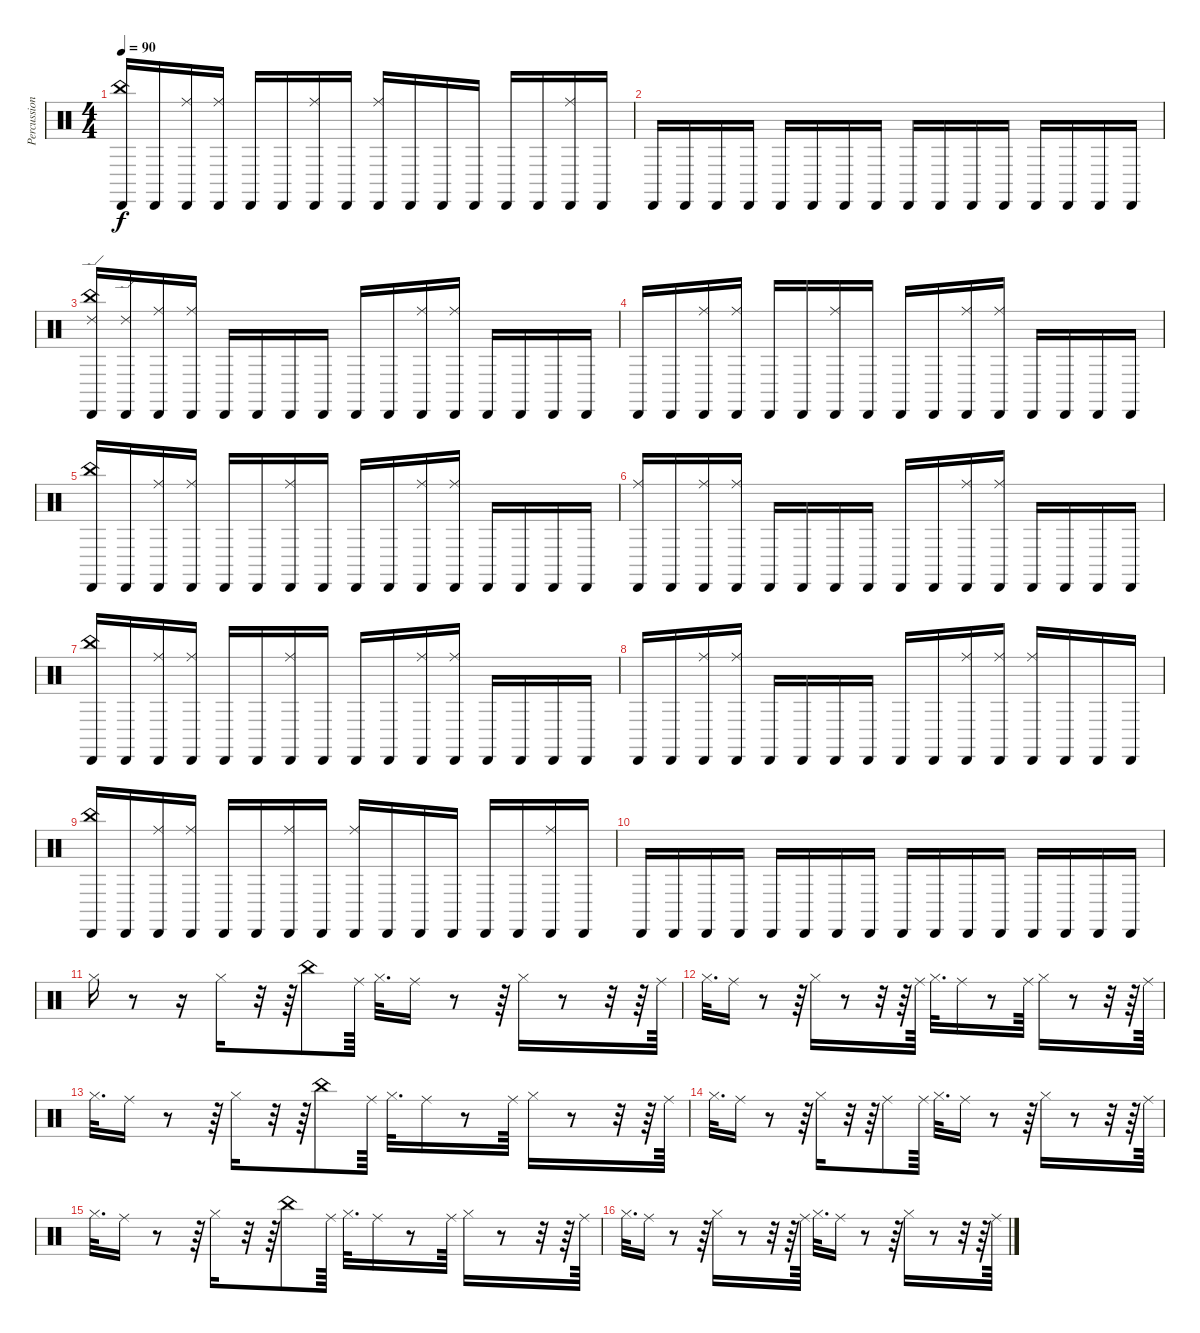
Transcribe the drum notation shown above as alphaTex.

\track ("Percussions by Marc Lavoo" "Percussion") {instrument percussion}
\staff {score}
\articulation defaults
\ts (4 4)
\tempo 90
\clef neutral
\ks c
("Cabasa (hit)" "China (hit)").16{dy f} "Cabasa (hit)".16 ("Cabasa (hit)" "Ride (middle)").16 ("Cabasa (hit)" "Ride (middle)").16 "Cabasa (hit)".16 "Cabasa (hit)".16 ("Cabasa (hit)" "Ride (middle)").16 "Cabasa (hit)".16 ("Cabasa (hit)" "Ride (middle)").16 "Cabasa (hit)".16 "Cabasa (hit)".16 "Cabasa (hit)".16 "Cabasa (hit)".16 "Cabasa (hit)".16 ("Cabasa (hit)" "Ride (middle)").16 "Cabasa (hit)".16 |
"Cabasa (hit)".16 "Cabasa (hit)".16 "Cabasa (hit)".16 "Cabasa (hit)".16 "Cabasa (hit)".16 "Cabasa (hit)".16 "Cabasa (hit)".16 "Cabasa (hit)".16 "Cabasa (hit)".16 "Cabasa (hit)".16 "Cabasa (hit)".16 "Cabasa (hit)".16 "Cabasa (hit)".16 "Cabasa (hit)".16 "Cabasa (hit)".16 "Cabasa (hit)".16 |
("Cabasa (hit)" "China (hit)" "Ride (edge) 2").16 ("Cabasa (hit)" "Ride (edge) 2").16 ("Cabasa (hit)" "Ride (middle)").16 ("Cabasa (hit)" "Ride (middle)").16 "Cabasa (hit)".16 "Cabasa (hit)".16 "Cabasa (hit)".16 "Cabasa (hit)".16 "Cabasa (hit)".16 "Cabasa (hit)".16 ("Cabasa (hit)" "Ride (middle)").16 ("Cabasa (hit)" "Ride (middle)").16 "Cabasa (hit)".16 "Cabasa (hit)".16 "Cabasa (hit)".16 "Cabasa (hit)".16 |
"Cabasa (hit)".16 "Cabasa (hit)".16 ("Cabasa (hit)" "Ride (middle)").16 ("Cabasa (hit)" "Ride (middle)").16 "Cabasa (hit)".16 "Cabasa (hit)".16 ("Cabasa (hit)" "Ride (middle)").16 "Cabasa (hit)".16 "Cabasa (hit)".16 "Cabasa (hit)".16 ("Cabasa (hit)" "Ride (middle)").16 ("Cabasa (hit)" "Ride (middle)").16 "Cabasa (hit)".16 "Cabasa (hit)".16 "Cabasa (hit)".16 "Cabasa (hit)".16 |
("Cabasa (hit)" "China (hit)").16 "Cabasa (hit)".16 ("Cabasa (hit)" "Ride (middle)").16 ("Cabasa (hit)" "Ride (middle)").16 "Cabasa (hit)".16 "Cabasa (hit)".16 ("Cabasa (hit)" "Ride (middle)").16 "Cabasa (hit)".16 "Cabasa (hit)".16 "Cabasa (hit)".16 ("Cabasa (hit)" "Ride (middle)").16 ("Cabasa (hit)" "Ride (middle)").16 "Cabasa (hit)".16 "Cabasa (hit)".16 "Cabasa (hit)".16 "Cabasa (hit)".16 |
("Cabasa (hit)" "Ride (middle)").16 "Cabasa (hit)".16 ("Cabasa (hit)" "Ride (middle)").16 ("Cabasa (hit)" "Ride (middle)").16 "Cabasa (hit)".16 "Cabasa (hit)".16 "Cabasa (hit)".16 "Cabasa (hit)".16 "Cabasa (hit)".16 "Cabasa (hit)".16 ("Cabasa (hit)" "Ride (middle)").16 ("Cabasa (hit)" "Ride (middle)").16 "Cabasa (hit)".16 "Cabasa (hit)".16 "Cabasa (hit)".16 "Cabasa (hit)".16 |
("Cabasa (hit)" "China (hit)").16 "Cabasa (hit)".16 ("Cabasa (hit)" "Ride (middle)").16 ("Cabasa (hit)" "Ride (middle)").16 "Cabasa (hit)".16 "Cabasa (hit)".16 ("Cabasa (hit)" "Ride (middle)").16 "Cabasa (hit)".16 "Cabasa (hit)".16 "Cabasa (hit)".16 ("Cabasa (hit)" "Ride (middle)").16 ("Cabasa (hit)" "Ride (middle)").16 "Cabasa (hit)".16 "Cabasa (hit)".16 "Cabasa (hit)".16 "Cabasa (hit)".16 |
"Cabasa (hit)".16 "Cabasa (hit)".16 ("Cabasa (hit)" "Ride (middle)").16 ("Cabasa (hit)" "Ride (middle)").16 "Cabasa (hit)".16 "Cabasa (hit)".16 "Cabasa (hit)".16 "Cabasa (hit)".16 "Cabasa (hit)".16 "Cabasa (hit)".16 ("Cabasa (hit)" "Ride (middle)").16 ("Cabasa (hit)" "Ride (middle)").16 ("Cabasa (hit)" "Ride (middle)").16 "Cabasa (hit)".16 "Cabasa (hit)".16 "Cabasa (hit)".16 |
("Cabasa (hit)" "China (hit)").16 "Cabasa (hit)".16 ("Cabasa (hit)" "Ride (middle)").16 ("Cabasa (hit)" "Ride (middle)").16 "Cabasa (hit)".16 "Cabasa (hit)".16 ("Cabasa (hit)" "Ride (middle)").16 "Cabasa (hit)".16 ("Cabasa (hit)" "Ride (middle)").16 "Cabasa (hit)".16 "Cabasa (hit)".16 "Cabasa (hit)".16 "Cabasa (hit)".16 "Cabasa (hit)".16 ("Cabasa (hit)" "Ride (middle)").16 "Cabasa (hit)".16 |
"Cabasa (hit)".16 "Cabasa (hit)".16 "Cabasa (hit)".16 "Cabasa (hit)".16 "Cabasa (hit)".16 "Cabasa (hit)".16 "Cabasa (hit)".16 "Cabasa (hit)".16 "Cabasa (hit)".16 "Cabasa (hit)".16 "Cabasa (hit)".16 "Cabasa (hit)".16 "Cabasa (hit)".16 "Cabasa (hit)".16 "Cabasa (hit)".16 "Cabasa (hit)".16 |
"Hi-Hat (closed)".16 r.8 r.16 "Hi-Hat (closed)".16 r.32 r.64 "China (hit)".8 "Ride (middle)".64 "Hi-Hat (closed)".32{d} "Ride (middle)".16 r.8 r.64 "Hi-Hat (closed)".16 r.8 r.32 r.64 "Ride (middle)".64 |
"Hi-Hat (closed)".32{d} "Ride (middle)".16 r.8 r.64 "Hi-Hat (closed)".16 r.8 r.32 r.64 "Ride (middle)".64 "Hi-Hat (closed)".32{d} "Ride (middle)".16 r.8 "Ride (middle)".64 "Hi-Hat (closed)".16 r.8 r.32 r.64 "Ride (middle)".64 |
"Hi-Hat (closed)".32{d} "Ride (middle)".16 r.8 r.64 "Hi-Hat (closed)".16 r.32 r.64 "China (hit)".8 "Ride (middle)".64 "Hi-Hat (closed)".32{d} "Ride (middle)".16 r.8 "Ride (middle)".64 "Hi-Hat (closed)".16 r.8 r.32 r.64 "Ride (middle)".64 |
"Hi-Hat (closed)".32{d} "Ride (middle)".16 r.8 r.64 "Hi-Hat (closed)".16 r.32 r.64 "Ride (middle)".8 "Ride (middle)".64 "Hi-Hat (closed)".32{d} "Ride (middle)".16 r.8 r.64 "Hi-Hat (closed)".16 r.8 r.32 r.64 "Ride (middle)".64 |
"Hi-Hat (closed)".32{d} "Ride (middle)".16 r.8 r.64 "Hi-Hat (closed)".16 r.32 r.64 "China (hit)".8 "Ride (middle)".64 "Hi-Hat (closed)".32{d} "Ride (middle)".16 r.8 "Ride (middle)".64 "Hi-Hat (closed)".16 r.8 r.32 r.64 "Ride (middle)".64 |
"Hi-Hat (closed)".32{d} "Ride (middle)".16 r.8 r.64 "Hi-Hat (closed)".16 r.8 r.32 r.64 "Ride (middle)".64 "Hi-Hat (closed)".32{d} "Ride (middle)".16 r.8 r.64 "Hi-Hat (closed)".16 r.8 r.32 r.64 "Ride (middle)".64
